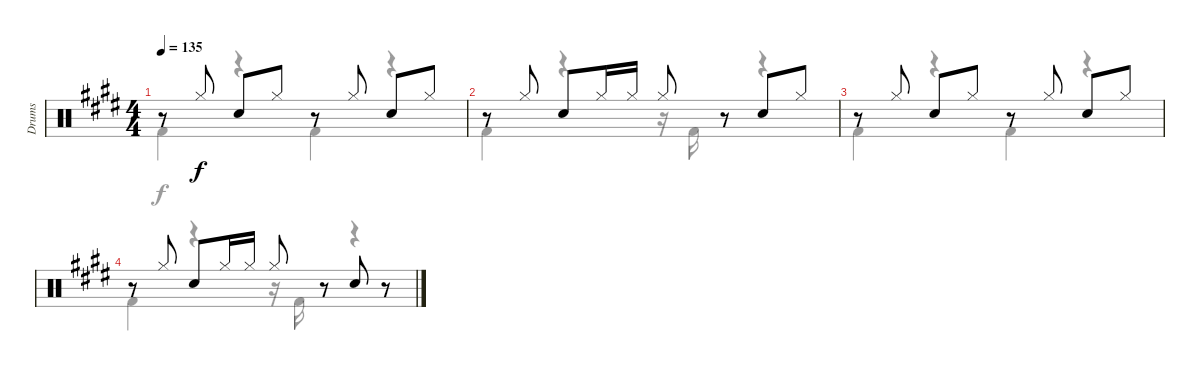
\track ("Drums" "Drums") {instrument percussion}
\staff {score}
\articulation defaults
\voice
\ts (4 4)
\tempo 135
\clef neutral
\ks c#minor
r.8{dy f} "Hi-Hat (closed)".8 "Snare (hit) 2".8 "Hi-Hat (closed)".8 r.8 "Hi-Hat (closed)".8 "Snare (hit) 2".8 "Hi-Hat (closed)".8 |
r.8 "Hi-Hat (closed)".8 "Snare (hit) 2".8 "Hi-Hat (closed)".16 "Hi-Hat (closed)".16 "Hi-Hat (closed)".8 r.8 "Snare (hit) 2".8 "Hi-Hat (closed)".8 |
r.8 "Hi-Hat (closed)".8 "Snare (hit) 2".8 "Hi-Hat (closed)".8 r.8 "Hi-Hat (closed)".8 "Snare (hit) 2".8 "Hi-Hat (closed)".8 |
r.8 "Hi-Hat (closed)".8 "Snare (hit) 2".8 "Hi-Hat (closed)".16 "Hi-Hat (closed)".16 "Hi-Hat (closed)".8 r.8 "Snare (hit) 2".8 r.8
\voice
\clef neutral
\ottava regular
\simile none
\ks c#minor "Kick (hit) 2".4{dy f}
r.4 "Kick (hit) 2".4 r.4 |
"Kick (hit) 2".4 r.4 r.16 "Kick (hit) 2".16 r.8 r.4 |
"Kick (hit) 2".4 r.4 "Kick (hit) 2".4 r.4 |
"Kick (hit) 2".4 r.4 r.16 "Kick (hit) 2".16 r.8 r.4
